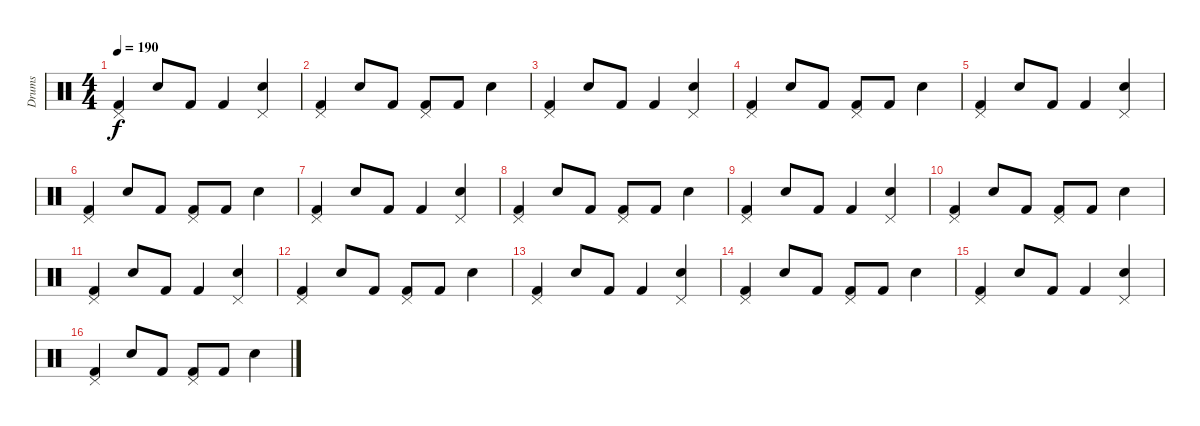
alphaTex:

\track ("Drums" "Drums") {instrument percussion}
\staff {score}
\articulation defaults
\ts (4 4)
\tempo 190
\clef neutral
\ks c
("Pedal Hi-Hat (hit)" "Kick (hit) 2").4{dy f} "Electric Snare (hit)".8 "Kick (hit) 2".8 "Kick (hit) 2".4 ("Pedal Hi-Hat (hit)" "Electric Snare (hit)").4 |
("Pedal Hi-Hat (hit)" "Kick (hit) 2").4 "Electric Snare (hit)".8 "Kick (hit) 2".8 ("Pedal Hi-Hat (hit)" "Kick (hit) 2").8 "Kick (hit) 2".8 "Electric Snare (hit)".4 |
("Pedal Hi-Hat (hit)" "Kick (hit) 2").4 "Electric Snare (hit)".8 "Kick (hit) 2".8 "Kick (hit) 2".4 ("Pedal Hi-Hat (hit)" "Electric Snare (hit)").4 |
("Pedal Hi-Hat (hit)" "Kick (hit) 2").4 "Electric Snare (hit)".8 "Kick (hit) 2".8 ("Pedal Hi-Hat (hit)" "Kick (hit) 2").8 "Kick (hit) 2".8 "Electric Snare (hit)".4 |
("Pedal Hi-Hat (hit)" "Kick (hit) 2").4 "Electric Snare (hit)".8 "Kick (hit) 2".8 "Kick (hit) 2".4 ("Pedal Hi-Hat (hit)" "Electric Snare (hit)").4 |
("Pedal Hi-Hat (hit)" "Kick (hit) 2").4 "Electric Snare (hit)".8 "Kick (hit) 2".8 ("Pedal Hi-Hat (hit)" "Kick (hit) 2").8 "Kick (hit) 2".8 "Electric Snare (hit)".4 |
("Pedal Hi-Hat (hit)" "Kick (hit) 2").4 "Electric Snare (hit)".8 "Kick (hit) 2".8 "Kick (hit) 2".4 ("Pedal Hi-Hat (hit)" "Electric Snare (hit)").4 |
("Pedal Hi-Hat (hit)" "Kick (hit) 2").4 "Electric Snare (hit)".8 "Kick (hit) 2".8 ("Pedal Hi-Hat (hit)" "Kick (hit) 2").8 "Kick (hit) 2".8 "Electric Snare (hit)".4 |
("Pedal Hi-Hat (hit)" "Kick (hit) 2").4 "Electric Snare (hit)".8 "Kick (hit) 2".8 "Kick (hit) 2".4 ("Pedal Hi-Hat (hit)" "Electric Snare (hit)").4 |
("Pedal Hi-Hat (hit)" "Kick (hit) 2").4 "Electric Snare (hit)".8 "Kick (hit) 2".8 ("Pedal Hi-Hat (hit)" "Kick (hit) 2").8 "Kick (hit) 2".8 "Electric Snare (hit)".4 |
("Pedal Hi-Hat (hit)" "Kick (hit) 2").4 "Electric Snare (hit)".8 "Kick (hit) 2".8 "Kick (hit) 2".4 ("Pedal Hi-Hat (hit)" "Electric Snare (hit)").4 |
("Pedal Hi-Hat (hit)" "Kick (hit) 2").4 "Electric Snare (hit)".8 "Kick (hit) 2".8 ("Pedal Hi-Hat (hit)" "Kick (hit) 2").8 "Kick (hit) 2".8 "Electric Snare (hit)".4 |
("Pedal Hi-Hat (hit)" "Kick (hit) 2").4 "Electric Snare (hit)".8 "Kick (hit) 2".8 "Kick (hit) 2".4 ("Pedal Hi-Hat (hit)" "Electric Snare (hit)").4 |
("Pedal Hi-Hat (hit)" "Kick (hit) 2").4 "Electric Snare (hit)".8 "Kick (hit) 2".8 ("Pedal Hi-Hat (hit)" "Kick (hit) 2").8 "Kick (hit) 2".8 "Electric Snare (hit)".4 |
("Pedal Hi-Hat (hit)" "Kick (hit) 2").4 "Electric Snare (hit)".8 "Kick (hit) 2".8 "Kick (hit) 2".4 ("Pedal Hi-Hat (hit)" "Electric Snare (hit)").4 |
("Pedal Hi-Hat (hit)" "Kick (hit) 2").4 "Electric Snare (hit)".8 "Kick (hit) 2".8 ("Pedal Hi-Hat (hit)" "Kick (hit) 2").8 "Kick (hit) 2".8 "Electric Snare (hit)".4
